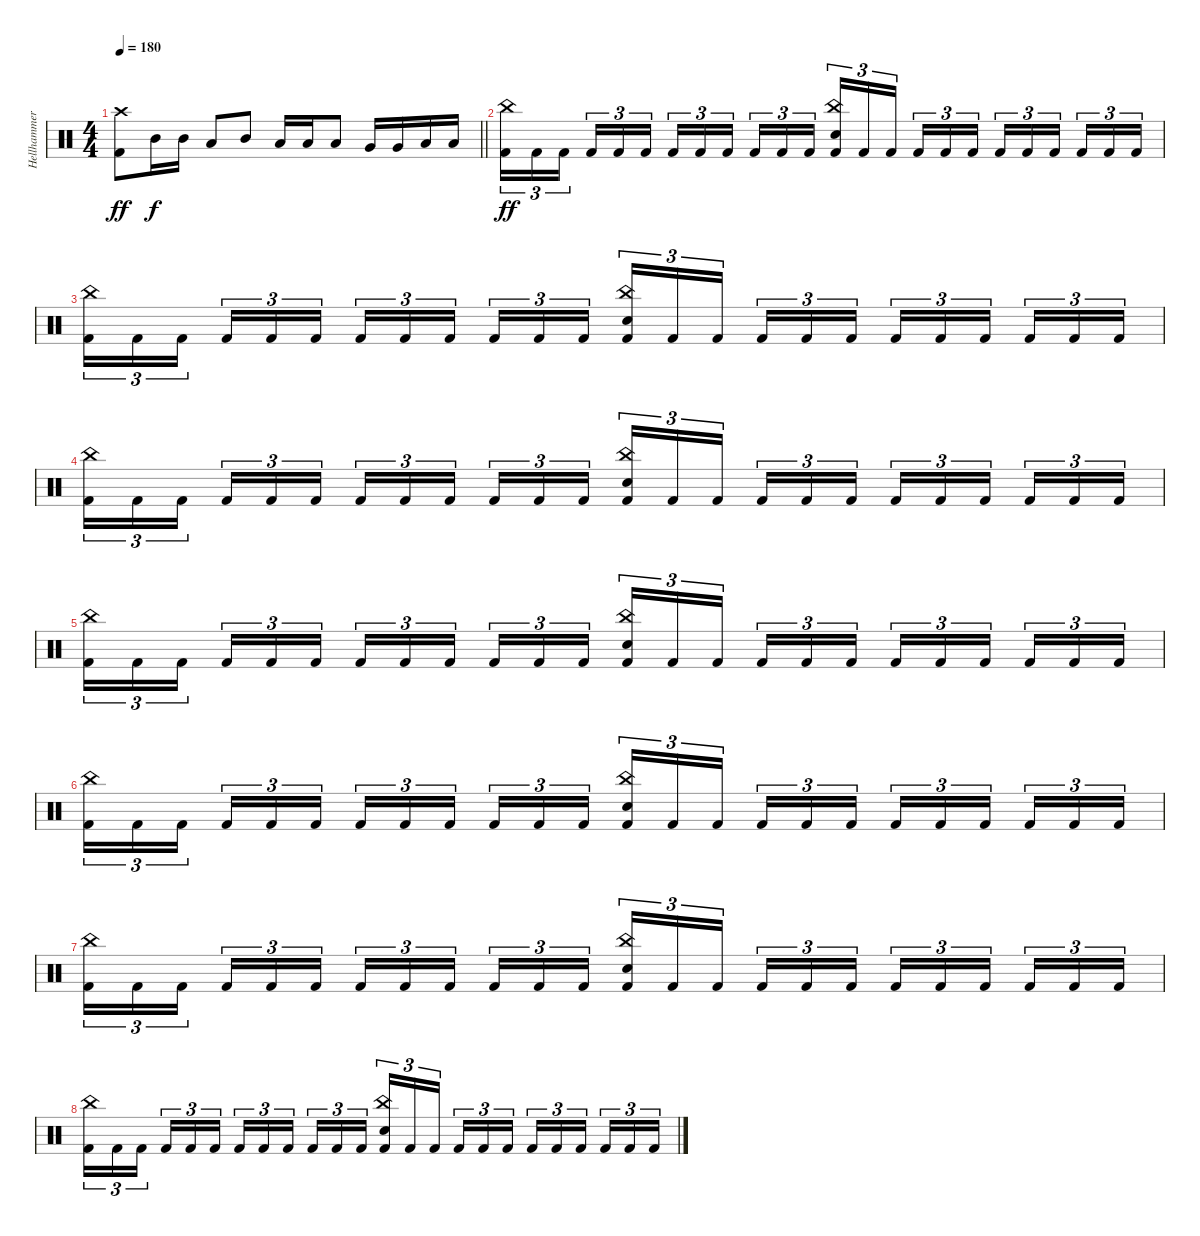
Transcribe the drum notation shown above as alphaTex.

\track ("Hellhammer" "Hellhammer") {instrument percussion}
\staff {score}
\articulation defaults
\ts (4 4)
\tempo 180
\clef neutral
\barLineRight lightlight
\ks c
("Crash high (hit)" "Kick (hit) 2").8{dy ff} "Mid Tom (hit)".16{dy f} "Mid Tom (hit)".16 "Low Tom (hit)".8 "Mid Tom (hit)".8 "Low Tom (hit)".16 "Low Tom (hit)".16 "Low Tom (hit)".8 "Very Low Tom (hit)".16 "Very Low Tom (hit)".16 "Low Floor Tom (hit)".16 "Low Floor Tom (hit)".16 |
("China (hit)" "Kick (hit) 2").16{tu (3 2) dy ff} "Kick (hit) 2".16{tu (3 2)} "Kick (hit) 2".16{tu (3 2) beam splitsecondary} "Kick (hit) 2".16{tu (3 2)} "Kick (hit) 2".16{tu (3 2)} "Kick (hit) 2".16{tu (3 2)} "Kick (hit) 2".16{tu (3 2)} "Kick (hit) 2".16{tu (3 2)} "Kick (hit) 2".16{tu (3 2) beam splitsecondary} "Kick (hit) 2".16{tu (3 2)} "Kick (hit) 2".16{tu (3 2)} "Kick (hit) 2".16{tu (3 2)} ("China (hit)" "Electric Snare (hit)" "Kick (hit) 2").16{tu (3 2)} "Kick (hit) 2".16{tu (3 2)} "Kick (hit) 2".16{tu (3 2) beam splitsecondary} "Kick (hit) 2".16{tu (3 2)} "Kick (hit) 2".16{tu (3 2)} "Kick (hit) 2".16{tu (3 2)} "Kick (hit) 2".16{tu (3 2)} "Kick (hit) 2".16{tu (3 2)} "Kick (hit) 2".16{tu (3 2) beam splitsecondary} "Kick (hit) 2".16{tu (3 2)} "Kick (hit) 2".16{tu (3 2)} "Kick (hit) 2".16{tu (3 2)} |
("China (hit)" "Kick (hit) 2").16{tu (3 2)} "Kick (hit) 2".16{tu (3 2)} "Kick (hit) 2".16{tu (3 2) beam splitsecondary} "Kick (hit) 2".16{tu (3 2)} "Kick (hit) 2".16{tu (3 2)} "Kick (hit) 2".16{tu (3 2)} "Kick (hit) 2".16{tu (3 2)} "Kick (hit) 2".16{tu (3 2)} "Kick (hit) 2".16{tu (3 2) beam splitsecondary} "Kick (hit) 2".16{tu (3 2)} "Kick (hit) 2".16{tu (3 2)} "Kick (hit) 2".16{tu (3 2)} ("China (hit)" "Electric Snare (hit)" "Kick (hit) 2").16{tu (3 2)} "Kick (hit) 2".16{tu (3 2)} "Kick (hit) 2".16{tu (3 2) beam splitsecondary} "Kick (hit) 2".16{tu (3 2)} "Kick (hit) 2".16{tu (3 2)} "Kick (hit) 2".16{tu (3 2)} "Kick (hit) 2".16{tu (3 2)} "Kick (hit) 2".16{tu (3 2)} "Kick (hit) 2".16{tu (3 2) beam splitsecondary} "Kick (hit) 2".16{tu (3 2)} "Kick (hit) 2".16{tu (3 2)} "Kick (hit) 2".16{tu (3 2)} |
("China (hit)" "Kick (hit) 2").16{tu (3 2)} "Kick (hit) 2".16{tu (3 2)} "Kick (hit) 2".16{tu (3 2) beam splitsecondary} "Kick (hit) 2".16{tu (3 2)} "Kick (hit) 2".16{tu (3 2)} "Kick (hit) 2".16{tu (3 2)} "Kick (hit) 2".16{tu (3 2)} "Kick (hit) 2".16{tu (3 2)} "Kick (hit) 2".16{tu (3 2) beam splitsecondary} "Kick (hit) 2".16{tu (3 2)} "Kick (hit) 2".16{tu (3 2)} "Kick (hit) 2".16{tu (3 2)} ("China (hit)" "Electric Snare (hit)" "Kick (hit) 2").16{tu (3 2)} "Kick (hit) 2".16{tu (3 2)} "Kick (hit) 2".16{tu (3 2) beam splitsecondary} "Kick (hit) 2".16{tu (3 2)} "Kick (hit) 2".16{tu (3 2)} "Kick (hit) 2".16{tu (3 2)} "Kick (hit) 2".16{tu (3 2)} "Kick (hit) 2".16{tu (3 2)} "Kick (hit) 2".16{tu (3 2) beam splitsecondary} "Kick (hit) 2".16{tu (3 2)} "Kick (hit) 2".16{tu (3 2)} "Kick (hit) 2".16{tu (3 2)} |
("China (hit)" "Kick (hit) 2").16{tu (3 2)} "Kick (hit) 2".16{tu (3 2)} "Kick (hit) 2".16{tu (3 2) beam splitsecondary} "Kick (hit) 2".16{tu (3 2)} "Kick (hit) 2".16{tu (3 2)} "Kick (hit) 2".16{tu (3 2)} "Kick (hit) 2".16{tu (3 2)} "Kick (hit) 2".16{tu (3 2)} "Kick (hit) 2".16{tu (3 2) beam splitsecondary} "Kick (hit) 2".16{tu (3 2)} "Kick (hit) 2".16{tu (3 2)} "Kick (hit) 2".16{tu (3 2)} ("China (hit)" "Electric Snare (hit)" "Kick (hit) 2").16{tu (3 2)} "Kick (hit) 2".16{tu (3 2)} "Kick (hit) 2".16{tu (3 2) beam splitsecondary} "Kick (hit) 2".16{tu (3 2)} "Kick (hit) 2".16{tu (3 2)} "Kick (hit) 2".16{tu (3 2)} "Kick (hit) 2".16{tu (3 2)} "Kick (hit) 2".16{tu (3 2)} "Kick (hit) 2".16{tu (3 2) beam splitsecondary} "Kick (hit) 2".16{tu (3 2)} "Kick (hit) 2".16{tu (3 2)} "Kick (hit) 2".16{tu (3 2)} |
("China (hit)" "Kick (hit) 2").16{tu (3 2)} "Kick (hit) 2".16{tu (3 2)} "Kick (hit) 2".16{tu (3 2) beam splitsecondary} "Kick (hit) 2".16{tu (3 2)} "Kick (hit) 2".16{tu (3 2)} "Kick (hit) 2".16{tu (3 2)} "Kick (hit) 2".16{tu (3 2)} "Kick (hit) 2".16{tu (3 2)} "Kick (hit) 2".16{tu (3 2) beam splitsecondary} "Kick (hit) 2".16{tu (3 2)} "Kick (hit) 2".16{tu (3 2)} "Kick (hit) 2".16{tu (3 2)} ("China (hit)" "Electric Snare (hit)" "Kick (hit) 2").16{tu (3 2)} "Kick (hit) 2".16{tu (3 2)} "Kick (hit) 2".16{tu (3 2) beam splitsecondary} "Kick (hit) 2".16{tu (3 2)} "Kick (hit) 2".16{tu (3 2)} "Kick (hit) 2".16{tu (3 2)} "Kick (hit) 2".16{tu (3 2)} "Kick (hit) 2".16{tu (3 2)} "Kick (hit) 2".16{tu (3 2) beam splitsecondary} "Kick (hit) 2".16{tu (3 2)} "Kick (hit) 2".16{tu (3 2)} "Kick (hit) 2".16{tu (3 2)} |
("China (hit)" "Kick (hit) 2").16{tu (3 2)} "Kick (hit) 2".16{tu (3 2)} "Kick (hit) 2".16{tu (3 2) beam splitsecondary} "Kick (hit) 2".16{tu (3 2)} "Kick (hit) 2".16{tu (3 2)} "Kick (hit) 2".16{tu (3 2)} "Kick (hit) 2".16{tu (3 2)} "Kick (hit) 2".16{tu (3 2)} "Kick (hit) 2".16{tu (3 2) beam splitsecondary} "Kick (hit) 2".16{tu (3 2)} "Kick (hit) 2".16{tu (3 2)} "Kick (hit) 2".16{tu (3 2)} ("China (hit)" "Electric Snare (hit)" "Kick (hit) 2").16{tu (3 2)} "Kick (hit) 2".16{tu (3 2)} "Kick (hit) 2".16{tu (3 2) beam splitsecondary} "Kick (hit) 2".16{tu (3 2)} "Kick (hit) 2".16{tu (3 2)} "Kick (hit) 2".16{tu (3 2)} "Kick (hit) 2".16{tu (3 2)} "Kick (hit) 2".16{tu (3 2)} "Kick (hit) 2".16{tu (3 2) beam splitsecondary} "Kick (hit) 2".16{tu (3 2)} "Kick (hit) 2".16{tu (3 2)} "Kick (hit) 2".16{tu (3 2)} |
("China (hit)" "Kick (hit) 2").16{tu (3 2)} "Kick (hit) 2".16{tu (3 2)} "Kick (hit) 2".16{tu (3 2) beam splitsecondary} "Kick (hit) 2".16{tu (3 2)} "Kick (hit) 2".16{tu (3 2)} "Kick (hit) 2".16{tu (3 2)} "Kick (hit) 2".16{tu (3 2)} "Kick (hit) 2".16{tu (3 2)} "Kick (hit) 2".16{tu (3 2) beam splitsecondary} "Kick (hit) 2".16{tu (3 2)} "Kick (hit) 2".16{tu (3 2)} "Kick (hit) 2".16{tu (3 2)} ("China (hit)" "Electric Snare (hit)" "Kick (hit) 2").16{tu (3 2)} "Kick (hit) 2".16{tu (3 2)} "Kick (hit) 2".16{tu (3 2) beam splitsecondary} "Kick (hit) 2".16{tu (3 2)} "Kick (hit) 2".16{tu (3 2)} "Kick (hit) 2".16{tu (3 2)} "Kick (hit) 2".16{tu (3 2)} "Kick (hit) 2".16{tu (3 2)} "Kick (hit) 2".16{tu (3 2) beam splitsecondary} "Kick (hit) 2".16{tu (3 2)} "Kick (hit) 2".16{tu (3 2)} "Kick (hit) 2".16{tu (3 2)}
